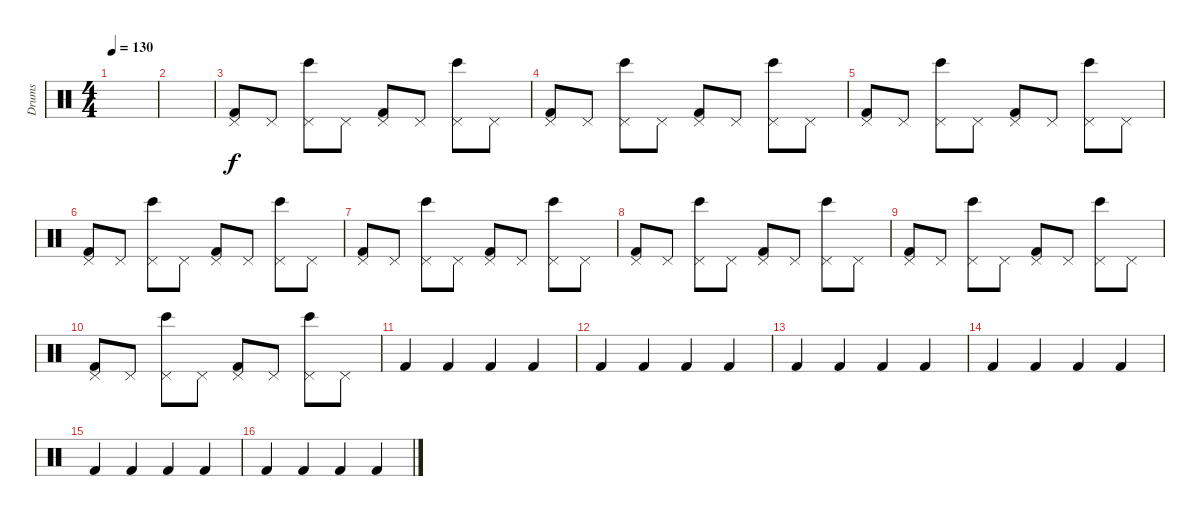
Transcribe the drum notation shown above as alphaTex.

\track ("Drums" "Drums") {instrument percussion}
\staff {score}
\articulation defaults
\ts (4 4)
\tempo 130
\clef neutral
\ks c
|
|
("Pedal Hi-Hat (hit)" "Kick (hit) 2").8 "Pedal Hi-Hat (hit)".8 ("Pedal Hi-Hat (hit)" "Bongo High (hit)").8 "Pedal Hi-Hat (hit)".8 ("Pedal Hi-Hat (hit)" "Kick (hit) 2").8 "Pedal Hi-Hat (hit)".8 ("Pedal Hi-Hat (hit)" "Bongo High (hit)").8 "Pedal Hi-Hat (hit)".8 |
("Pedal Hi-Hat (hit)" "Kick (hit) 2").8 "Pedal Hi-Hat (hit)".8 ("Pedal Hi-Hat (hit)" "Bongo High (hit)").8 "Pedal Hi-Hat (hit)".8 ("Pedal Hi-Hat (hit)" "Kick (hit) 2").8 "Pedal Hi-Hat (hit)".8 ("Pedal Hi-Hat (hit)" "Bongo High (hit)").8 "Pedal Hi-Hat (hit)".8 |
("Pedal Hi-Hat (hit)" "Kick (hit) 2").8 "Pedal Hi-Hat (hit)".8 ("Pedal Hi-Hat (hit)" "Bongo High (hit)").8 "Pedal Hi-Hat (hit)".8 ("Pedal Hi-Hat (hit)" "Kick (hit) 2").8 "Pedal Hi-Hat (hit)".8 ("Pedal Hi-Hat (hit)" "Bongo High (hit)").8 "Pedal Hi-Hat (hit)".8 |
("Pedal Hi-Hat (hit)" "Kick (hit) 2").8 "Pedal Hi-Hat (hit)".8 ("Pedal Hi-Hat (hit)" "Bongo High (hit)").8 "Pedal Hi-Hat (hit)".8 ("Pedal Hi-Hat (hit)" "Kick (hit) 2").8 "Pedal Hi-Hat (hit)".8 ("Pedal Hi-Hat (hit)" "Bongo High (hit)").8 "Pedal Hi-Hat (hit)".8 |
("Pedal Hi-Hat (hit)" "Kick (hit) 2").8 "Pedal Hi-Hat (hit)".8 ("Pedal Hi-Hat (hit)" "Bongo High (hit)").8 "Pedal Hi-Hat (hit)".8 ("Pedal Hi-Hat (hit)" "Kick (hit) 2").8 "Pedal Hi-Hat (hit)".8 ("Pedal Hi-Hat (hit)" "Bongo High (hit)").8 "Pedal Hi-Hat (hit)".8 |
("Pedal Hi-Hat (hit)" "Kick (hit) 2").8 "Pedal Hi-Hat (hit)".8 ("Pedal Hi-Hat (hit)" "Bongo High (hit)").8 "Pedal Hi-Hat (hit)".8 ("Pedal Hi-Hat (hit)" "Kick (hit) 2").8 "Pedal Hi-Hat (hit)".8 ("Pedal Hi-Hat (hit)" "Bongo High (hit)").8 "Pedal Hi-Hat (hit)".8 |
("Pedal Hi-Hat (hit)" "Kick (hit) 2").8 "Pedal Hi-Hat (hit)".8 ("Pedal Hi-Hat (hit)" "Bongo High (hit)").8 "Pedal Hi-Hat (hit)".8 ("Pedal Hi-Hat (hit)" "Kick (hit) 2").8 "Pedal Hi-Hat (hit)".8 ("Pedal Hi-Hat (hit)" "Bongo High (hit)").8 "Pedal Hi-Hat (hit)".8 |
("Pedal Hi-Hat (hit)" "Kick (hit) 2").8 "Pedal Hi-Hat (hit)".8 ("Pedal Hi-Hat (hit)" "Bongo High (hit)").8 "Pedal Hi-Hat (hit)".8 ("Pedal Hi-Hat (hit)" "Kick (hit) 2").8 "Pedal Hi-Hat (hit)".8 ("Pedal Hi-Hat (hit)" "Bongo High (hit)").8 "Pedal Hi-Hat (hit)".8 |
"Kick (hit) 2".4 "Kick (hit) 2".4 "Kick (hit) 2".4 "Kick (hit) 2".4 |
"Kick (hit) 2".4 "Kick (hit) 2".4 "Kick (hit) 2".4 "Kick (hit) 2".4 |
"Kick (hit) 2".4 "Kick (hit) 2".4 "Kick (hit) 2".4 "Kick (hit) 2".4 |
"Kick (hit) 2".4 "Kick (hit) 2".4 "Kick (hit) 2".4 "Kick (hit) 2".4 |
"Kick (hit) 2".4 "Kick (hit) 2".4 "Kick (hit) 2".4 "Kick (hit) 2".4 |
"Kick (hit) 2".4 "Kick (hit) 2".4 "Kick (hit) 2".4 "Kick (hit) 2".4
